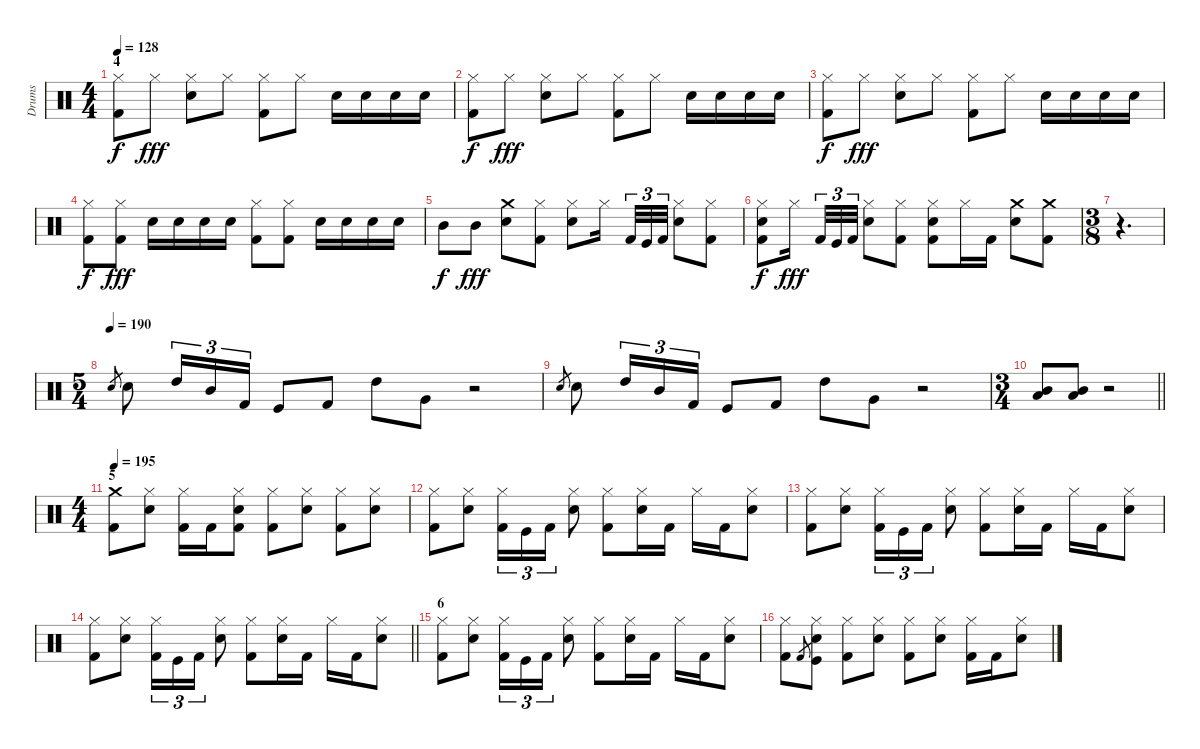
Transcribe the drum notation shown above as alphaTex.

\track ("Drums" "Drums") {instrument percussion}
\staff {score}
\articulation defaults
\ts (4 4)
\section ("" "4")
\tempo 128
\clef neutral
\ks c
("Hi-Hat (closed)" "Kick (hit) 2").8{dy f} "Hi-Hat (closed)".8{dy fff} ("Snare (hit) 2" "Hi-Hat (closed)").8 "Hi-Hat (closed)".8 ("Hi-Hat (closed)" "Kick (hit) 2").8 "Hi-Hat (closed)".8 "Snare (hit) 2".16 "Snare (hit) 2".16 "Snare (hit) 2".16 "Snare (hit) 2".16 |
("Hi-Hat (closed)" "Kick (hit) 2").8{dy f} "Hi-Hat (closed)".8{dy fff} ("Snare (hit) 2" "Hi-Hat (closed)").8 "Hi-Hat (closed)".8 ("Hi-Hat (closed)" "Kick (hit) 2").8 "Hi-Hat (closed)".8 "Snare (hit) 2".16 "Snare (hit) 2".16 "Snare (hit) 2".16 "Snare (hit) 2".16 |
("Hi-Hat (closed)" "Kick (hit) 2").8{dy f} "Hi-Hat (closed)".8{dy fff} ("Snare (hit) 2" "Hi-Hat (closed)").8 "Hi-Hat (closed)".8 ("Hi-Hat (closed)" "Kick (hit) 2").8 "Hi-Hat (closed)".8 "Snare (hit) 2".16 "Snare (hit) 2".16 "Snare (hit) 2".16 "Snare (hit) 2".16 |
("Hi-Hat (closed)" "Kick (hit) 2").8{dy f} ("Kick (hit) 2" "Hi-Hat (closed)").8{dy fff} "Snare (hit) 2".16 "Snare (hit) 2".16 "Snare (hit) 2".16 "Snare (hit) 2".16 ("Kick (hit) 2" "Hi-Hat (closed)").8 ("Kick (hit) 2" "Hi-Hat (closed)").8 "Snare (hit) 2".16 "Snare (hit) 2".16 "Snare (hit) 2".16 "Snare (hit) 2".16 |
"Mid Tom (hit)".8{dy f} "Mid Tom (hit)".8{dy fff} ("Crash medium (hit)" "Snare (hit) 2").8 ("Kick (hit) 2" "Hi-Hat (closed)").8 ("Snare (hit) 2" "Hi-Hat (closed)").8 "Hi-Hat (closed)".16{beam splitsecondary} "Kick (hit) 2".32{tu (3 2)} "Kick (hit)".32{tu (3 2)} "Kick (hit) 2".32{tu (3 2)} ("Snare (hit) 2" "Hi-Hat (closed)").8 ("Kick (hit) 2" "Hi-Hat (closed)").8 |
("Hi-Hat (closed)" "Snare (hit) 2" "Kick (hit) 2").8{dy f} "Hi-Hat (closed)".16{dy fff beam splitsecondary} "Kick (hit) 2".32{tu (3 2)} "Kick (hit)".32{tu (3 2)} "Kick (hit) 2".32{tu (3 2)} ("Snare (hit) 2" "Hi-Hat (closed)").8 ("Hi-Hat (closed)" "Kick (hit) 2").8 ("Snare (hit) 2" "Hi-Hat (closed)" "Kick (hit) 2").8 "Hi-Hat (closed)".16 "Kick (hit) 2".16 ("Crash medium (hit)" "Snare (hit) 2").8 ("Crash medium (hit)" "Kick (hit) 2").8 |
\ts (3 8)
r.4{d} |
\ts (5 4)
\tempo (190)
"Snare (hit) 2".8{gr} "Snare (hit) 2".8 "High Tom (hit)".16{tu (3 2)} "Mid Tom (hit)".16{tu (3 2)} "Kick (hit) 2".16{tu (3 2)} "Kick (hit)".8 "Kick (hit) 2".8 "High Tom (hit)".8 "Very Low Tom (hit)".8 r.2 |
"Snare (hit) 2".8{gr} "Snare (hit) 2".8 "High Tom (hit)".16{tu (3 2)} "Mid Tom (hit)".16{tu (3 2)} "Kick (hit) 2".16{tu (3 2)} "Kick (hit)".8 "Kick (hit) 2".8 "High Tom (hit)".8 "Very Low Tom (hit)".8 r.2 |
\ts (3 4)
\barLineRight lightlight
("Mid Tom (hit)" "Low Tom (hit)").8 ("Mid Tom (hit)" "Low Tom (hit)").8 r.2 |
\ts (4 4)
\section ("" "5")
\tempo 195
("Kick (hit) 2" "Crash medium (hit)").8 ("Hi-Hat (closed)" "Snare (hit) 2").8 ("Kick (hit) 2" "Hi-Hat (closed)").16 "Kick (hit) 2".16 ("Kick (hit) 2" "Snare (hit) 2" "Hi-Hat (closed)").8 ("Kick (hit) 2" "Hi-Hat (closed)").8 ("Snare (hit) 2" "Hi-Hat (closed)").8 ("Kick (hit) 2" "Hi-Hat (closed)").8 ("Snare (hit) 2" "Hi-Hat (closed)").8 |
("Kick (hit) 2" "Hi-Hat (closed)").8 ("Snare (hit) 2" "Hi-Hat (closed)").8 ("Kick (hit) 2" "Hi-Hat (closed)").16{tu (3 2)} "Kick (hit)".16{tu (3 2)} "Kick (hit) 2".16{tu (3 2)} ("Snare (hit) 2" "Hi-Hat (closed)").8 ("Kick (hit) 2" "Hi-Hat (closed)").8 ("Snare (hit) 2" "Hi-Hat (closed)").16 "Kick (hit) 2".16 "Hi-Hat (closed)".16 "Kick (hit) 2".16 ("Snare (hit) 2" "Hi-Hat (closed)").8 |
("Kick (hit) 2" "Hi-Hat (closed)").8 ("Snare (hit) 2" "Hi-Hat (closed)").8 ("Kick (hit) 2" "Hi-Hat (closed)").16{tu (3 2)} "Kick (hit)".16{tu (3 2)} "Kick (hit) 2".16{tu (3 2)} ("Snare (hit) 2" "Hi-Hat (closed)").8 ("Kick (hit) 2" "Hi-Hat (closed)").8 ("Snare (hit) 2" "Hi-Hat (closed)").16 "Kick (hit) 2".16 "Hi-Hat (closed)".16 "Kick (hit) 2".16 ("Snare (hit) 2" "Hi-Hat (closed)").8 |
\barLineRight lightlight
("Kick (hit) 2" "Hi-Hat (closed)").8 ("Snare (hit) 2" "Hi-Hat (closed)").8 ("Kick (hit) 2" "Hi-Hat (closed)").16{tu (3 2)} "Kick (hit)".16{tu (3 2)} "Kick (hit) 2".16{tu (3 2)} ("Snare (hit) 2" "Hi-Hat (closed)").8 ("Kick (hit) 2" "Hi-Hat (closed)").8 ("Snare (hit) 2" "Hi-Hat (closed)").16 "Kick (hit) 2".16 "Hi-Hat (closed)".16 "Kick (hit) 2".16 ("Snare (hit) 2" "Hi-Hat (closed)").8 |
\section ("" "6")
("Kick (hit) 2" "Hi-Hat (closed)").8 ("Snare (hit) 2" "Hi-Hat (closed)").8 ("Kick (hit) 2" "Hi-Hat (closed)").16{tu (3 2)} "Kick (hit)".16{tu (3 2)} "Kick (hit) 2".16{tu (3 2)} ("Snare (hit) 2" "Hi-Hat (closed)").8 ("Kick (hit) 2" "Hi-Hat (closed)").8 ("Snare (hit) 2" "Hi-Hat (closed)").16 "Kick (hit) 2".16 "Hi-Hat (closed)".16 "Kick (hit) 2".16 ("Snare (hit) 2" "Hi-Hat (closed)").8 |
("Kick (hit) 2" "Hi-Hat (closed)").8 "Kick (hit) 2".8{gr} ("Kick (hit)" "Snare (hit) 2" "Hi-Hat (closed)").8 ("Kick (hit) 2" "Hi-Hat (closed)").8 ("Snare (hit) 2" "Hi-Hat (closed)").8 ("Kick (hit) 2" "Hi-Hat (closed)").8 ("Snare (hit) 2" "Hi-Hat (closed)").8 ("Kick (hit) 2" "Hi-Hat (closed)").16 "Kick (hit) 2".16 ("Snare (hit) 2" "Hi-Hat (closed)").8
